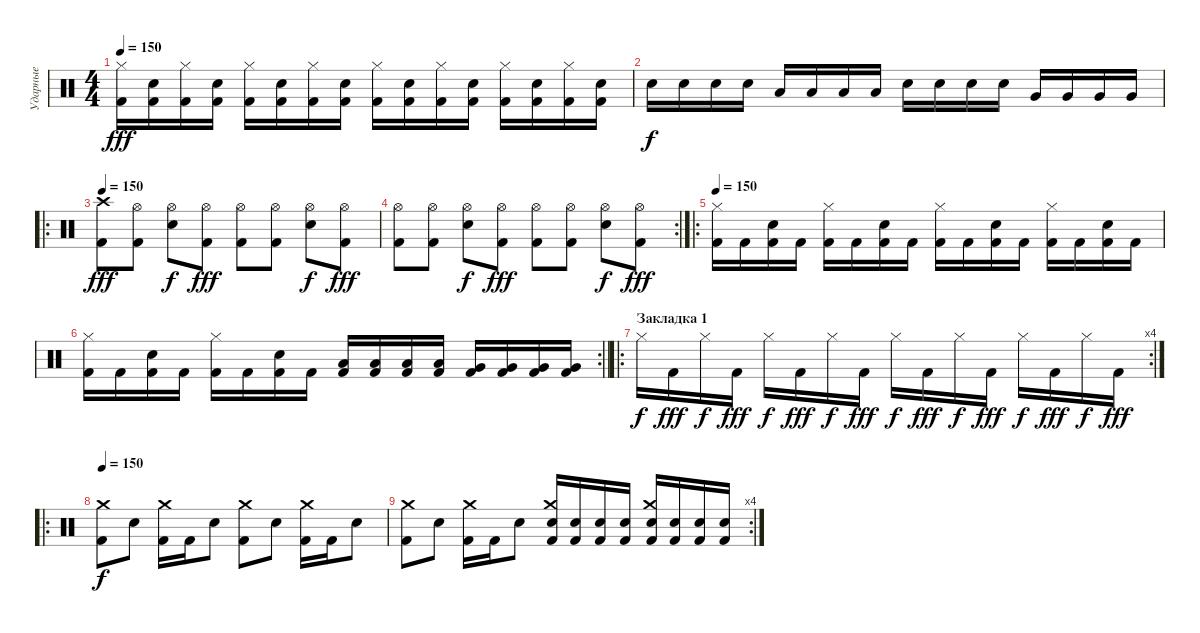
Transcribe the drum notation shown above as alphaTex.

\track ("Ударные" "Ударные") {instrument percussion}
\staff {score}
\articulation defaults
\ts (4 4)
\tempo 150
\clef neutral
\ks c
("Hi-Hat (closed)" "Kick (hit) 2").16{dy fff} ("Snare (hit) 2" "Kick (hit) 2").16 ("Hi-Hat (closed)" "Kick (hit) 2").16 ("Snare (hit) 2" "Kick (hit) 2").16 ("Hi-Hat (closed)" "Kick (hit) 2").16 ("Snare (hit) 2" "Kick (hit) 2").16 ("Hi-Hat (closed)" "Kick (hit) 2").16 ("Snare (hit) 2" "Kick (hit) 2").16 ("Hi-Hat (closed)" "Kick (hit) 2").16 ("Snare (hit) 2" "Kick (hit) 2").16 ("Hi-Hat (closed)" "Kick (hit) 2").16 ("Snare (hit) 2" "Kick (hit) 2").16 ("Hi-Hat (closed)" "Kick (hit) 2").16 ("Snare (hit) 2" "Kick (hit) 2").16 ("Hi-Hat (closed)" "Kick (hit) 2").16 ("Snare (hit) 2" "Kick (hit) 2").16 |
"Snare (hit) 2".16{dy f} "Snare (hit) 2".16 "Snare (hit) 2".16 "Snare (hit) 2".16 "Low Tom (hit)".16 "Low Tom (hit)".16 "Low Tom (hit)".16 "Low Tom (hit)".16 "Snare (hit) 2".16 "Snare (hit) 2".16 "Snare (hit) 2".16 "Snare (hit) 2".16 "Very Low Tom (hit)".16 "Very Low Tom (hit)".16 "Very Low Tom (hit)".16 "Very Low Tom (hit)".16 |
\ro
\tempo 150
("Crash high (hit)" "Kick (hit) 2").8{dy fff} ("Hi-Hat (open)" "Kick (hit) 2").8 ("Hi-Hat (open)" "Snare (hit) 2").8{dy f} ("Hi-Hat (open)" "Kick (hit) 2").8{dy fff} ("Hi-Hat (open)" "Kick (hit) 2").8 ("Hi-Hat (open)" "Kick (hit) 2").8 ("Hi-Hat (open)" "Snare (hit) 2").8{dy f} ("Hi-Hat (open)" "Kick (hit) 2").8{dy fff} |
\rc 2
("Hi-Hat (open)" "Kick (hit) 2").8 ("Hi-Hat (open)" "Kick (hit) 2").8 ("Hi-Hat (open)" "Snare (hit) 2").8{dy f} ("Hi-Hat (open)" "Kick (hit) 2").8{dy fff} ("Hi-Hat (open)" "Kick (hit) 2").8 ("Hi-Hat (open)" "Kick (hit) 2").8 ("Hi-Hat (open)" "Snare (hit) 2").8{dy f} ("Hi-Hat (open)" "Kick (hit) 2").8{dy fff} |
\ro
\tempo 150
("Hi-Hat (closed)" "Kick (hit) 2").16 "Kick (hit) 2".16 ("Snare (hit) 2" "Kick (hit) 2").16 "Kick (hit) 2".16 ("Hi-Hat (closed)" "Kick (hit) 2").16 "Kick (hit) 2".16 ("Snare (hit) 2" "Kick (hit) 2").16 "Kick (hit) 2".16 ("Hi-Hat (closed)" "Kick (hit) 2").16 "Kick (hit) 2".16 ("Snare (hit) 2" "Kick (hit) 2").16 "Kick (hit) 2".16 ("Hi-Hat (closed)" "Kick (hit) 2").16 "Kick (hit) 2".16 ("Snare (hit) 2" "Kick (hit) 2").16 "Kick (hit) 2".16 |
\rc 2
\barLineRight lightlight
("Hi-Hat (closed)" "Kick (hit) 2").16 "Kick (hit) 2".16 ("Snare (hit) 2" "Kick (hit) 2").16 "Kick (hit) 2".16 ("Hi-Hat (closed)" "Kick (hit) 2").16 "Kick (hit) 2".16 ("Snare (hit) 2" "Kick (hit) 2").16 "Kick (hit) 2".16 ("Low Tom (hit)" "Kick (hit) 2").16 ("Low Tom (hit)" "Kick (hit) 2").16 ("Low Tom (hit)" "Kick (hit) 2").16 ("Low Tom (hit)" "Kick (hit) 2").16 ("Very Low Tom (hit)" "Kick (hit) 2").16 ("Very Low Tom (hit)" "Kick (hit) 2").16 ("Very Low Tom (hit)" "Kick (hit) 2").16 ("Very Low Tom (hit)" "Kick (hit) 2").16 |
\ro
\rc 4
\section ("" "Закладка 1")
"Hi-Hat (closed)".16{dy f} "Kick (hit) 2".16{dy fff} "Hi-Hat (closed)".16{dy f} "Kick (hit) 2".16{dy fff} "Hi-Hat (closed)".16{dy f} "Kick (hit) 2".16{dy fff} "Hi-Hat (closed)".16{dy f} "Kick (hit) 2".16{dy fff} "Hi-Hat (closed)".16{dy f} "Kick (hit) 2".16{dy fff} "Hi-Hat (closed)".16{dy f} "Kick (hit) 2".16{dy fff} "Hi-Hat (closed)".16{dy f} "Kick (hit) 2".16{dy fff} "Hi-Hat (closed)".16{dy f} "Kick (hit) 2".16{dy fff} |
\ro
\tempo 150
("Crash medium (hit)" "Kick (hit) 2").8{dy f} "Electric Snare (hit)".8 ("Crash medium (hit)" "Kick (hit) 2").16 "Kick (hit) 2".16 "Electric Snare (hit)".8 ("Crash medium (hit)" "Kick (hit) 2").8 "Electric Snare (hit)".8 ("Crash medium (hit)" "Kick (hit) 2").16 "Kick (hit) 2".16 "Electric Snare (hit)".8 |
\rc 4
("Crash medium (hit)" "Kick (hit) 2").8 "Electric Snare (hit)".8 ("Crash medium (hit)" "Kick (hit) 2").16 "Kick (hit) 2".16 "Electric Snare (hit)".8 ("Crash medium (hit)" "Electric Snare (hit)" "Kick (hit) 2").16 ("Electric Snare (hit)" "Kick (hit) 2").16 ("Electric Snare (hit)" "Kick (hit) 2").16 ("Electric Snare (hit)" "Kick (hit) 2").16 ("Crash medium (hit)" "Electric Snare (hit)" "Kick (hit) 2").16 ("Electric Snare (hit)" "Kick (hit) 2").16 ("Electric Snare (hit)" "Kick (hit) 2").16 ("Electric Snare (hit)" "Kick (hit) 2").16
